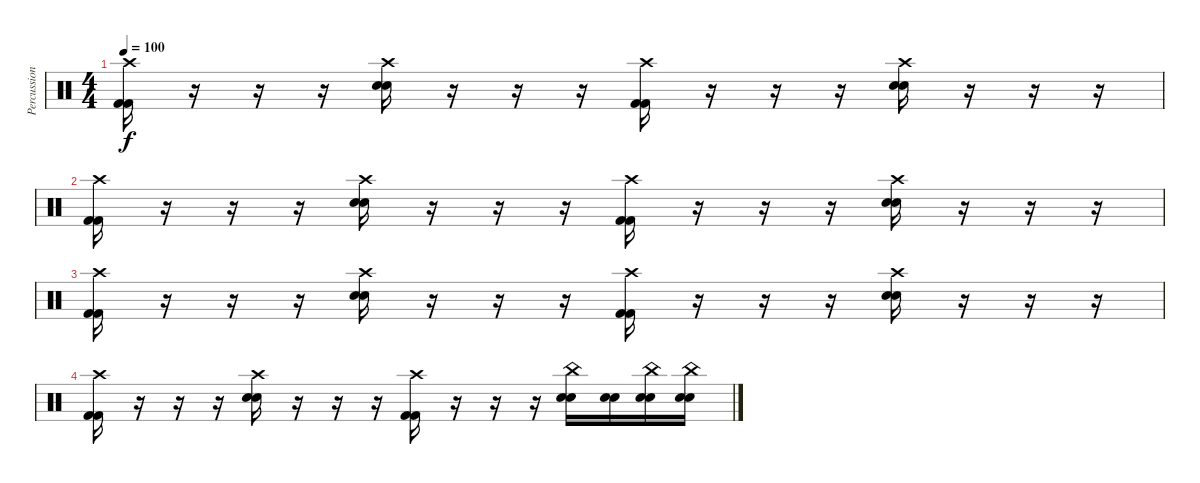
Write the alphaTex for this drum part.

\track ("Percussions" "Percussion") {instrument percussion}
\staff {score}
\articulation defaults
\ts (4 4)
\tempo 100
\clef neutral
\ks c
("Crash high (hit)" "Kick (hit) 2" "Kick (hit) 2").16{dy f} r.16 r.16 r.16 ("Crash high (hit)" "Electric Snare (hit)" "Electric Snare (hit)").16 r.16 r.16 r.16 ("Crash high (hit)" "Kick (hit) 2" "Kick (hit) 2").16 r.16 r.16 r.16 ("Crash high (hit)" "Electric Snare (hit)" "Electric Snare (hit)").16 r.16 r.16 r.16 |
("Crash high (hit)" "Kick (hit) 2" "Kick (hit) 2").16 r.16 r.16 r.16 ("Crash high (hit)" "Electric Snare (hit)" "Electric Snare (hit)").16 r.16 r.16 r.16 ("Crash high (hit)" "Kick (hit) 2" "Kick (hit) 2").16 r.16 r.16 r.16 ("Crash high (hit)" "Electric Snare (hit)" "Electric Snare (hit)").16 r.16 r.16 r.16 |
("Crash high (hit)" "Kick (hit) 2" "Kick (hit) 2").16 r.16 r.16 r.16 ("Crash high (hit)" "Electric Snare (hit)" "Electric Snare (hit)").16 r.16 r.16 r.16 ("Crash high (hit)" "Kick (hit) 2" "Kick (hit) 2").16 r.16 r.16 r.16 ("Crash high (hit)" "Electric Snare (hit)" "Electric Snare (hit)").16 r.16 r.16 r.16 |
("Crash high (hit)" "Kick (hit) 2" "Kick (hit) 2").16 r.16 r.16 r.16 ("Crash high (hit)" "Electric Snare (hit)" "Electric Snare (hit)").16 r.16 r.16 r.16 ("Crash high (hit)" "Kick (hit) 2" "Kick (hit) 2").16 r.16 r.16 r.16 ("China (hit)" "Electric Snare (hit)" "Electric Snare (hit)").16 ("Electric Snare (hit)" "Electric Snare (hit)").16 ("China (hit)" "Electric Snare (hit)" "Electric Snare (hit)").16 ("China (hit)" "Electric Snare (hit)" "Electric Snare (hit)").16
